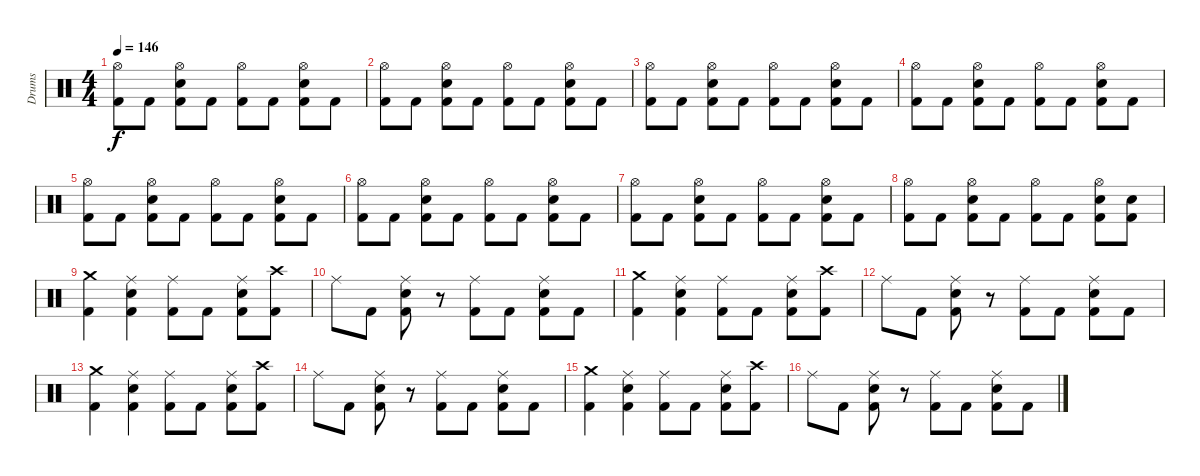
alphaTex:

\track ("Drums" "Drums") {instrument percussion}
\staff {score}
\articulation defaults
\ts (4 4)
\tempo 146
\clef neutral
\ks c
("Hi-Hat (open)" "Kick (hit) 2").8{dy f} "Kick (hit) 2".8 ("Hi-Hat (open)" "Snare (hit) 2" "Kick (hit) 2").8 "Kick (hit) 2".8 ("Hi-Hat (open)" "Kick (hit) 2").8 "Kick (hit) 2".8 ("Hi-Hat (open)" "Snare (hit) 2" "Kick (hit) 2").8 "Kick (hit) 2".8 |
("Hi-Hat (open)" "Kick (hit) 2").8 "Kick (hit) 2".8 ("Hi-Hat (open)" "Snare (hit) 2" "Kick (hit) 2").8 "Kick (hit) 2".8 ("Hi-Hat (open)" "Kick (hit) 2").8 "Kick (hit) 2".8 ("Hi-Hat (open)" "Snare (hit) 2" "Kick (hit) 2").8 "Kick (hit) 2".8 |
("Hi-Hat (open)" "Kick (hit) 2").8 "Kick (hit) 2".8 ("Hi-Hat (open)" "Snare (hit) 2" "Kick (hit) 2").8 "Kick (hit) 2".8 ("Hi-Hat (open)" "Kick (hit) 2").8 "Kick (hit) 2".8 ("Hi-Hat (open)" "Snare (hit) 2" "Kick (hit) 2").8 "Kick (hit) 2".8 |
("Hi-Hat (open)" "Kick (hit) 2").8 "Kick (hit) 2".8 ("Hi-Hat (open)" "Snare (hit) 2" "Kick (hit) 2").8 "Kick (hit) 2".8 ("Hi-Hat (open)" "Kick (hit) 2").8 "Kick (hit) 2".8 ("Hi-Hat (open)" "Snare (hit) 2" "Kick (hit) 2").8 "Kick (hit) 2".8 |
("Hi-Hat (open)" "Kick (hit) 2").8 "Kick (hit) 2".8 ("Hi-Hat (open)" "Snare (hit) 2" "Kick (hit) 2").8 "Kick (hit) 2".8 ("Hi-Hat (open)" "Kick (hit) 2").8 "Kick (hit) 2".8 ("Hi-Hat (open)" "Snare (hit) 2" "Kick (hit) 2").8 "Kick (hit) 2".8 |
("Hi-Hat (open)" "Kick (hit) 2").8 "Kick (hit) 2".8 ("Hi-Hat (open)" "Snare (hit) 2" "Kick (hit) 2").8 "Kick (hit) 2".8 ("Hi-Hat (open)" "Kick (hit) 2").8 "Kick (hit) 2".8 ("Hi-Hat (open)" "Snare (hit) 2" "Kick (hit) 2").8 "Kick (hit) 2".8 |
("Hi-Hat (open)" "Kick (hit) 2").8 "Kick (hit) 2".8 ("Hi-Hat (open)" "Snare (hit) 2" "Kick (hit) 2").8 "Kick (hit) 2".8 ("Hi-Hat (open)" "Kick (hit) 2").8 "Kick (hit) 2".8 ("Hi-Hat (open)" "Snare (hit) 2" "Kick (hit) 2").8 "Kick (hit) 2".8 |
("Hi-Hat (open)" "Kick (hit) 2").8 "Kick (hit) 2".8 ("Hi-Hat (open)" "Snare (hit) 2" "Kick (hit) 2").8 "Kick (hit) 2".8 ("Hi-Hat (open)" "Kick (hit) 2").8 "Kick (hit) 2".8 ("Hi-Hat (open)" "Snare (hit) 2" "Kick (hit) 2").8 ("Snare (hit) 2" "Kick (hit) 2").8 |
("Crash medium (hit)" "Kick (hit) 2").4 ("Ride (middle)" "Snare (hit) 2" "Kick (hit) 2").4 ("Ride (middle)" "Kick (hit) 2").8 "Kick (hit) 2".8 ("Ride (middle)" "Snare (hit) 2" "Kick (hit) 2").8 ("Crash high (hit)" "Kick (hit) 2").8 |
"Ride (middle)".8 "Kick (hit) 2".8 ("Ride (middle)" "Snare (hit) 2" "Kick (hit) 2").8 r.8 ("Ride (middle)" "Kick (hit) 2").8 "Kick (hit) 2".8 ("Ride (middle)" "Snare (hit) 2" "Kick (hit) 2").8 "Kick (hit) 2".8 |
("Crash medium (hit)" "Kick (hit) 2").4 ("Ride (middle)" "Snare (hit) 2" "Kick (hit) 2").4 ("Ride (middle)" "Kick (hit) 2").8 "Kick (hit) 2".8 ("Ride (middle)" "Snare (hit) 2" "Kick (hit) 2").8 ("Crash high (hit)" "Kick (hit) 2").8 |
"Ride (middle)".8 "Kick (hit) 2".8 ("Ride (middle)" "Snare (hit) 2" "Kick (hit) 2").8 r.8 ("Ride (middle)" "Kick (hit) 2").8 "Kick (hit) 2".8 ("Ride (middle)" "Snare (hit) 2" "Kick (hit) 2").8 "Kick (hit) 2".8 |
("Crash medium (hit)" "Kick (hit) 2").4 ("Ride (middle)" "Snare (hit) 2" "Kick (hit) 2").4 ("Ride (middle)" "Kick (hit) 2").8 "Kick (hit) 2".8 ("Ride (middle)" "Snare (hit) 2" "Kick (hit) 2").8 ("Crash high (hit)" "Kick (hit) 2").8 |
"Ride (middle)".8 "Kick (hit) 2".8 ("Ride (middle)" "Snare (hit) 2" "Kick (hit) 2").8 r.8 ("Ride (middle)" "Kick (hit) 2").8 "Kick (hit) 2".8 ("Ride (middle)" "Snare (hit) 2" "Kick (hit) 2").8 "Kick (hit) 2".8 |
("Crash medium (hit)" "Kick (hit) 2").4 ("Ride (middle)" "Snare (hit) 2" "Kick (hit) 2").4 ("Ride (middle)" "Kick (hit) 2").8 "Kick (hit) 2".8 ("Ride (middle)" "Snare (hit) 2" "Kick (hit) 2").8 ("Crash high (hit)" "Kick (hit) 2").8 |
"Ride (middle)".8 "Kick (hit) 2".8 ("Ride (middle)" "Snare (hit) 2" "Kick (hit) 2").8 r.8 ("Ride (middle)" "Kick (hit) 2").8 "Kick (hit) 2".8 ("Ride (middle)" "Snare (hit) 2" "Kick (hit) 2").8 "Kick (hit) 2".8
